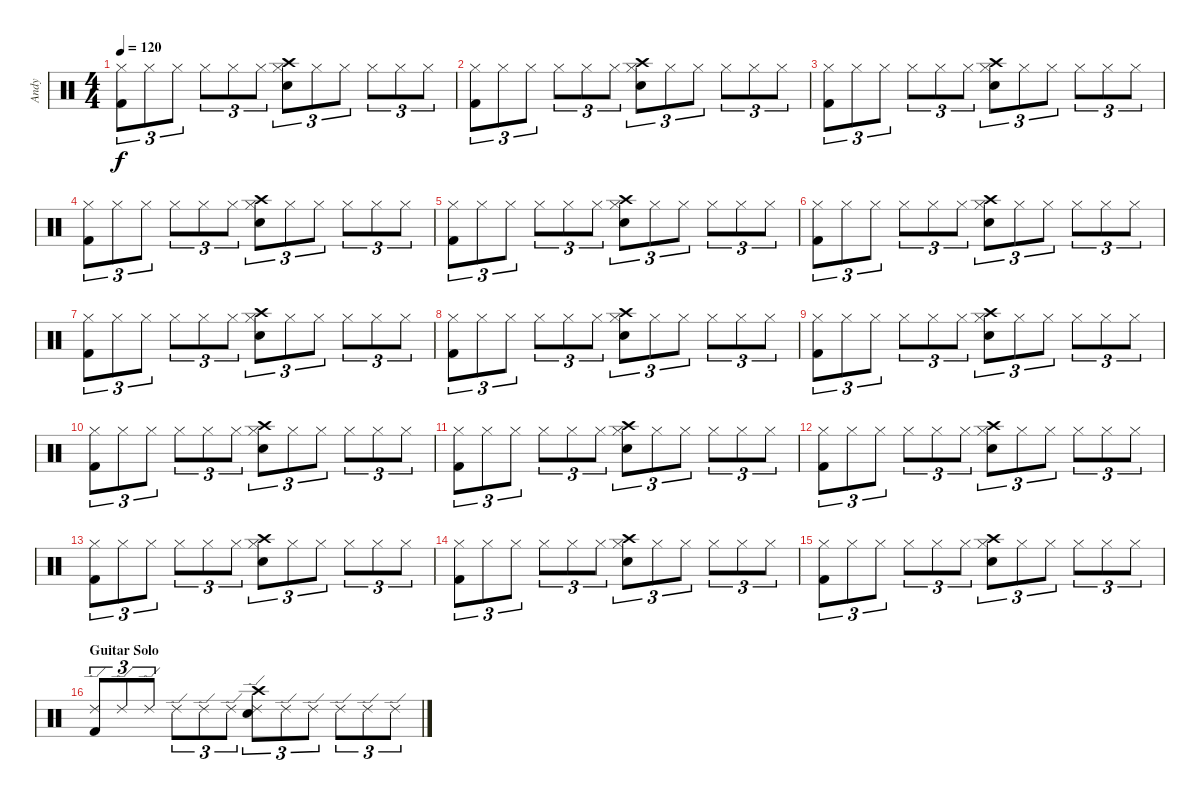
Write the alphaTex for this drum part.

\track ("Andy" "Andy") {instrument percussion}
\staff {score}
\articulation defaults
\ts (4 4)
\tempo 120
\clef neutral
\ks c
("Hi-Hat (closed)" "Kick (hit) 2").8{tu (3 2) dy f} "Hi-Hat (closed)".8{tu (3 2)} "Hi-Hat (closed)".8{tu (3 2)} "Hi-Hat (closed)".8{tu (3 2)} "Hi-Hat (closed)".8{tu (3 2)} "Hi-Hat (closed)".8{tu (3 2)} ("Crash high (hit)" "Hi-Hat (closed)" "Snare (hit) 2").8{tu (3 2)} "Hi-Hat (closed)".8{tu (3 2)} "Hi-Hat (closed)".8{tu (3 2)} "Hi-Hat (closed)".8{tu (3 2)} "Hi-Hat (closed)".8{tu (3 2)} "Hi-Hat (closed)".8{tu (3 2)} |
("Hi-Hat (closed)" "Kick (hit) 2").8{tu (3 2)} "Hi-Hat (closed)".8{tu (3 2)} "Hi-Hat (closed)".8{tu (3 2)} "Hi-Hat (closed)".8{tu (3 2)} "Hi-Hat (closed)".8{tu (3 2)} "Hi-Hat (closed)".8{tu (3 2)} ("Crash high (hit)" "Hi-Hat (closed)" "Snare (hit) 2").8{tu (3 2)} "Hi-Hat (closed)".8{tu (3 2)} "Hi-Hat (closed)".8{tu (3 2)} "Hi-Hat (closed)".8{tu (3 2)} "Hi-Hat (closed)".8{tu (3 2)} "Hi-Hat (closed)".8{tu (3 2)} |
("Hi-Hat (closed)" "Kick (hit) 2").8{tu (3 2)} "Hi-Hat (closed)".8{tu (3 2)} "Hi-Hat (closed)".8{tu (3 2)} "Hi-Hat (closed)".8{tu (3 2)} "Hi-Hat (closed)".8{tu (3 2)} "Hi-Hat (closed)".8{tu (3 2)} ("Crash high (hit)" "Hi-Hat (closed)" "Snare (hit) 2").8{tu (3 2)} "Hi-Hat (closed)".8{tu (3 2)} "Hi-Hat (closed)".8{tu (3 2)} "Hi-Hat (closed)".8{tu (3 2)} "Hi-Hat (closed)".8{tu (3 2)} "Hi-Hat (closed)".8{tu (3 2)} |
("Hi-Hat (closed)" "Kick (hit) 2").8{tu (3 2)} "Hi-Hat (closed)".8{tu (3 2)} "Hi-Hat (closed)".8{tu (3 2)} "Hi-Hat (closed)".8{tu (3 2)} "Hi-Hat (closed)".8{tu (3 2)} "Hi-Hat (closed)".8{tu (3 2)} ("Crash high (hit)" "Hi-Hat (closed)" "Snare (hit) 2").8{tu (3 2)} "Hi-Hat (closed)".8{tu (3 2)} "Hi-Hat (closed)".8{tu (3 2)} "Hi-Hat (closed)".8{tu (3 2)} "Hi-Hat (closed)".8{tu (3 2)} "Hi-Hat (closed)".8{tu (3 2)} |
("Hi-Hat (closed)" "Kick (hit) 2").8{tu (3 2)} "Hi-Hat (closed)".8{tu (3 2)} "Hi-Hat (closed)".8{tu (3 2)} "Hi-Hat (closed)".8{tu (3 2)} "Hi-Hat (closed)".8{tu (3 2)} "Hi-Hat (closed)".8{tu (3 2)} ("Crash high (hit)" "Hi-Hat (closed)" "Snare (hit) 2").8{tu (3 2)} "Hi-Hat (closed)".8{tu (3 2)} "Hi-Hat (closed)".8{tu (3 2)} "Hi-Hat (closed)".8{tu (3 2)} "Hi-Hat (closed)".8{tu (3 2)} "Hi-Hat (closed)".8{tu (3 2)} |
("Hi-Hat (closed)" "Kick (hit) 2").8{tu (3 2)} "Hi-Hat (closed)".8{tu (3 2)} "Hi-Hat (closed)".8{tu (3 2)} "Hi-Hat (closed)".8{tu (3 2)} "Hi-Hat (closed)".8{tu (3 2)} "Hi-Hat (closed)".8{tu (3 2)} ("Crash high (hit)" "Hi-Hat (closed)" "Snare (hit) 2").8{tu (3 2)} "Hi-Hat (closed)".8{tu (3 2)} "Hi-Hat (closed)".8{tu (3 2)} "Hi-Hat (closed)".8{tu (3 2)} "Hi-Hat (closed)".8{tu (3 2)} "Hi-Hat (closed)".8{tu (3 2)} |
("Hi-Hat (closed)" "Kick (hit) 2").8{tu (3 2)} "Hi-Hat (closed)".8{tu (3 2)} "Hi-Hat (closed)".8{tu (3 2)} "Hi-Hat (closed)".8{tu (3 2)} "Hi-Hat (closed)".8{tu (3 2)} "Hi-Hat (closed)".8{tu (3 2)} ("Crash high (hit)" "Hi-Hat (closed)" "Snare (hit) 2").8{tu (3 2)} "Hi-Hat (closed)".8{tu (3 2)} "Hi-Hat (closed)".8{tu (3 2)} "Hi-Hat (closed)".8{tu (3 2)} "Hi-Hat (closed)".8{tu (3 2)} "Hi-Hat (closed)".8{tu (3 2)} |
("Hi-Hat (closed)" "Kick (hit) 2").8{tu (3 2)} "Hi-Hat (closed)".8{tu (3 2)} "Hi-Hat (closed)".8{tu (3 2)} "Hi-Hat (closed)".8{tu (3 2)} "Hi-Hat (closed)".8{tu (3 2)} "Hi-Hat (closed)".8{tu (3 2)} ("Crash high (hit)" "Hi-Hat (closed)" "Snare (hit) 2").8{tu (3 2)} "Hi-Hat (closed)".8{tu (3 2)} "Hi-Hat (closed)".8{tu (3 2)} "Hi-Hat (closed)".8{tu (3 2)} "Hi-Hat (closed)".8{tu (3 2)} "Hi-Hat (closed)".8{tu (3 2)} |
("Hi-Hat (closed)" "Kick (hit) 2").8{tu (3 2)} "Hi-Hat (closed)".8{tu (3 2)} "Hi-Hat (closed)".8{tu (3 2)} "Hi-Hat (closed)".8{tu (3 2)} "Hi-Hat (closed)".8{tu (3 2)} "Hi-Hat (closed)".8{tu (3 2)} ("Crash high (hit)" "Hi-Hat (closed)" "Snare (hit) 2").8{tu (3 2)} "Hi-Hat (closed)".8{tu (3 2)} "Hi-Hat (closed)".8{tu (3 2)} "Hi-Hat (closed)".8{tu (3 2)} "Hi-Hat (closed)".8{tu (3 2)} "Hi-Hat (closed)".8{tu (3 2)} |
("Hi-Hat (closed)" "Kick (hit) 2").8{tu (3 2)} "Hi-Hat (closed)".8{tu (3 2)} "Hi-Hat (closed)".8{tu (3 2)} "Hi-Hat (closed)".8{tu (3 2)} "Hi-Hat (closed)".8{tu (3 2)} "Hi-Hat (closed)".8{tu (3 2)} ("Crash high (hit)" "Hi-Hat (closed)" "Snare (hit) 2").8{tu (3 2)} "Hi-Hat (closed)".8{tu (3 2)} "Hi-Hat (closed)".8{tu (3 2)} "Hi-Hat (closed)".8{tu (3 2)} "Hi-Hat (closed)".8{tu (3 2)} "Hi-Hat (closed)".8{tu (3 2)} |
("Hi-Hat (closed)" "Kick (hit) 2").8{tu (3 2)} "Hi-Hat (closed)".8{tu (3 2)} "Hi-Hat (closed)".8{tu (3 2)} "Hi-Hat (closed)".8{tu (3 2)} "Hi-Hat (closed)".8{tu (3 2)} "Hi-Hat (closed)".8{tu (3 2)} ("Crash high (hit)" "Hi-Hat (closed)" "Snare (hit) 2").8{tu (3 2)} "Hi-Hat (closed)".8{tu (3 2)} "Hi-Hat (closed)".8{tu (3 2)} "Hi-Hat (closed)".8{tu (3 2)} "Hi-Hat (closed)".8{tu (3 2)} "Hi-Hat (closed)".8{tu (3 2)} |
("Hi-Hat (closed)" "Kick (hit) 2").8{tu (3 2)} "Hi-Hat (closed)".8{tu (3 2)} "Hi-Hat (closed)".8{tu (3 2)} "Hi-Hat (closed)".8{tu (3 2)} "Hi-Hat (closed)".8{tu (3 2)} "Hi-Hat (closed)".8{tu (3 2)} ("Crash high (hit)" "Hi-Hat (closed)" "Snare (hit) 2").8{tu (3 2)} "Hi-Hat (closed)".8{tu (3 2)} "Hi-Hat (closed)".8{tu (3 2)} "Hi-Hat (closed)".8{tu (3 2)} "Hi-Hat (closed)".8{tu (3 2)} "Hi-Hat (closed)".8{tu (3 2)} |
("Hi-Hat (closed)" "Kick (hit) 2").8{tu (3 2)} "Hi-Hat (closed)".8{tu (3 2)} "Hi-Hat (closed)".8{tu (3 2)} "Hi-Hat (closed)".8{tu (3 2)} "Hi-Hat (closed)".8{tu (3 2)} "Hi-Hat (closed)".8{tu (3 2)} ("Crash high (hit)" "Hi-Hat (closed)" "Snare (hit) 2").8{tu (3 2)} "Hi-Hat (closed)".8{tu (3 2)} "Hi-Hat (closed)".8{tu (3 2)} "Hi-Hat (closed)".8{tu (3 2)} "Hi-Hat (closed)".8{tu (3 2)} "Hi-Hat (closed)".8{tu (3 2)} |
("Hi-Hat (closed)" "Kick (hit) 2").8{tu (3 2)} "Hi-Hat (closed)".8{tu (3 2)} "Hi-Hat (closed)".8{tu (3 2)} "Hi-Hat (closed)".8{tu (3 2)} "Hi-Hat (closed)".8{tu (3 2)} "Hi-Hat (closed)".8{tu (3 2)} ("Crash high (hit)" "Hi-Hat (closed)" "Snare (hit) 2").8{tu (3 2)} "Hi-Hat (closed)".8{tu (3 2)} "Hi-Hat (closed)".8{tu (3 2)} "Hi-Hat (closed)".8{tu (3 2)} "Hi-Hat (closed)".8{tu (3 2)} "Hi-Hat (closed)".8{tu (3 2)} |
("Hi-Hat (closed)" "Kick (hit) 2").8{tu (3 2)} "Hi-Hat (closed)".8{tu (3 2)} "Hi-Hat (closed)".8{tu (3 2)} "Hi-Hat (closed)".8{tu (3 2)} "Hi-Hat (closed)".8{tu (3 2)} "Hi-Hat (closed)".8{tu (3 2)} ("Crash high (hit)" "Hi-Hat (closed)" "Snare (hit) 2").8{tu (3 2)} "Hi-Hat (closed)".8{tu (3 2)} "Hi-Hat (closed)".8{tu (3 2)} "Hi-Hat (closed)".8{tu (3 2)} "Hi-Hat (closed)".8{tu (3 2)} "Hi-Hat (closed)".8{tu (3 2)} |
\section ("" "Guitar Solo")
("Ride (edge) 2" "Kick (hit) 2").8{tu (3 2)} "Ride (edge) 2".8{tu (3 2)} "Ride (edge) 2".8{tu (3 2)} "Ride (edge) 2".8{tu (3 2)} "Ride (edge) 2".8{tu (3 2)} "Ride (edge) 2".8{tu (3 2)} ("Crash high (hit)" "Ride (edge) 2" "Snare (hit) 2").8{tu (3 2)} "Ride (edge) 2".8{tu (3 2)} "Ride (edge) 2".8{tu (3 2)} "Ride (edge) 2".8{tu (3 2)} "Ride (edge) 2".8{tu (3 2)} "Ride (edge) 2".8{tu (3 2)}
